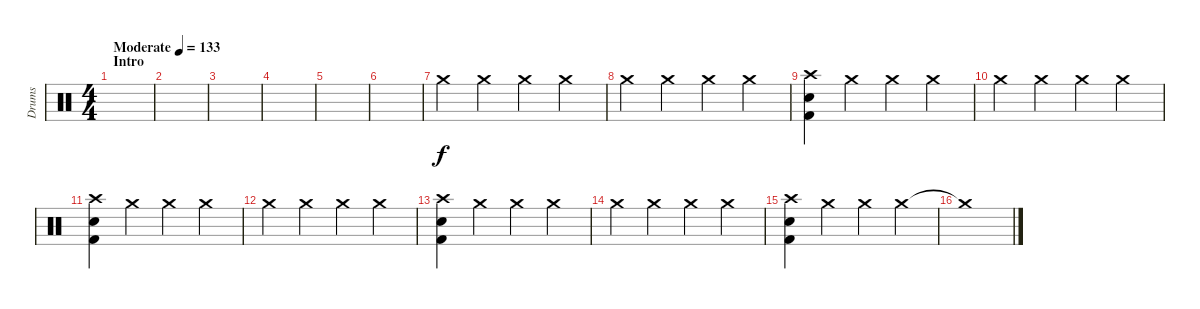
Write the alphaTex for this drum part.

\track ("Drums" "Drums") {instrument percussion}
\staff {score}
\articulation defaults
\ts (4 4)
\section ("" "Intro")
\tempo (133 "Moderate")
\clef neutral
\ks c
|
|
|
|
|
|
"Crash medium (hit)".4{volume 5} "Crash medium (hit)".4{volume 10} "Crash medium (hit)".4 "Crash medium (hit)".4 |
"Crash medium (hit)".4 "Crash medium (hit)".4 "Crash medium (hit)".4 "Crash medium (hit)".4 |
("Crash high (hit)" "Electric Snare (hit)" "Kick (hit) 2").4 "Crash medium (hit)".4{volume 3} "Crash medium (hit)".4{volume 10} "Crash medium (hit)".4 |
"Crash medium (hit)".4 "Crash medium (hit)".4 "Crash medium (hit)".4 "Crash medium (hit)".4 |
("Crash high (hit)" "Electric Snare (hit)" "Kick (hit) 2").4 "Crash medium (hit)".4{volume 3} "Crash medium (hit)".4{volume 10} "Crash medium (hit)".4 |
"Crash medium (hit)".4 "Crash medium (hit)".4 "Crash medium (hit)".4 "Crash medium (hit)".4 |
("Crash high (hit)" "Electric Snare (hit)" "Kick (hit) 2").4 "Crash medium (hit)".4{volume 3} "Crash medium (hit)".4{volume 10} "Crash medium (hit)".4 |
"Crash medium (hit)".4 "Crash medium (hit)".4 "Crash medium (hit)".4 "Crash medium (hit)".4 |
("Crash high (hit)" "Electric Snare (hit)" "Kick (hit) 2").4 "Crash medium (hit)".4{volume 3} "Crash medium (hit)".4{volume 10} "Crash medium (hit)".4 |
"Crash medium (hit)"{t}.1
